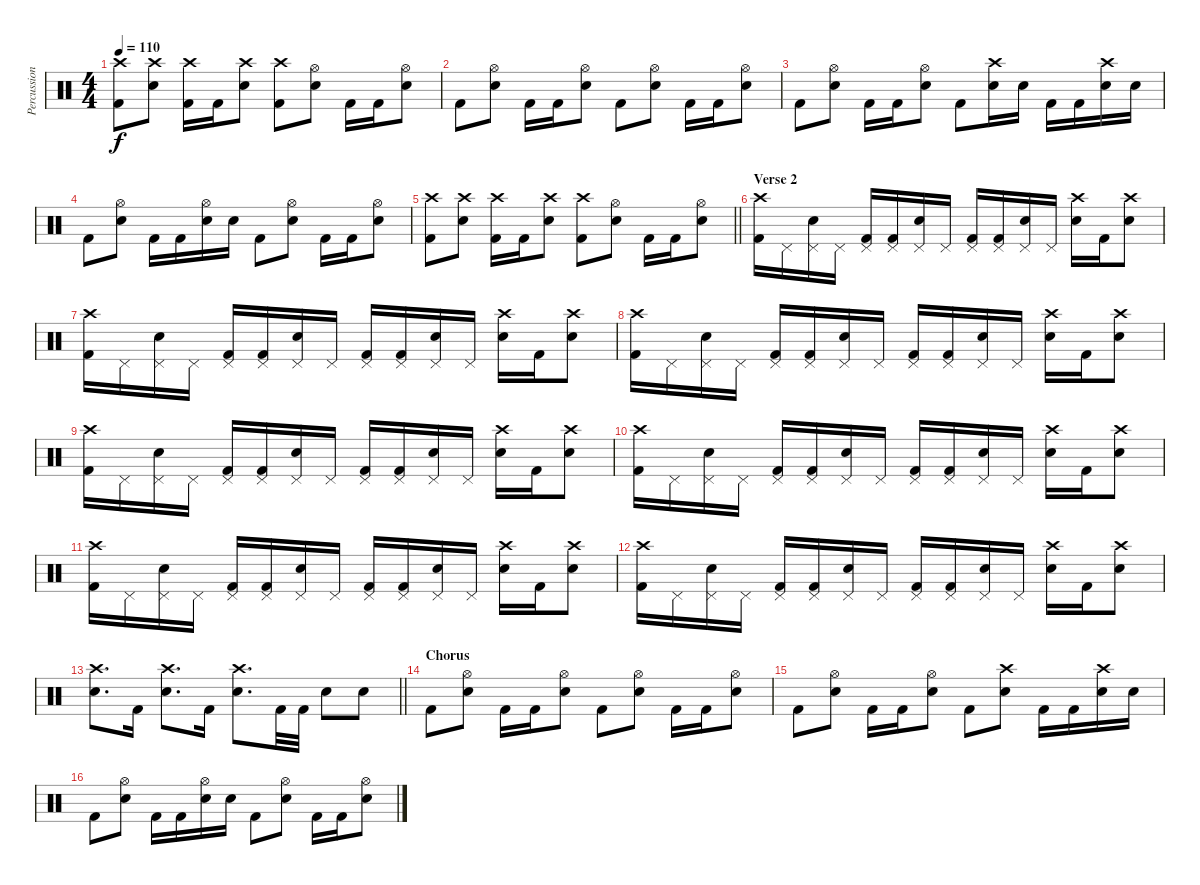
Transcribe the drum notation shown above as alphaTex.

\track ("Percussion" "Percussion") {instrument percussion}
\staff {score}
\articulation defaults
\ts (4 4)
\tempo 110
\clef neutral
\ks c
("Kick (hit) 2" "Crash high (hit)").8{dy f} ("Electric Snare (hit)" "Crash high (hit)").8 ("Kick (hit) 2" "Crash high (hit)").16 "Kick (hit) 2".16 ("Electric Snare (hit)" "Crash high (hit)").8 ("Kick (hit) 2" "Crash high (hit)").8 ("Electric Snare (hit)" "Hi-Hat (open)").8 "Kick (hit) 2".16 "Kick (hit) 2".16 ("Electric Snare (hit)" "Hi-Hat (open)").8 |
"Kick (hit) 2".8 ("Electric Snare (hit)" "Hi-Hat (open)").8 "Kick (hit) 2".16 "Kick (hit) 2".16 ("Electric Snare (hit)" "Hi-Hat (open)").8 "Kick (hit) 2".8 ("Electric Snare (hit)" "Hi-Hat (open)").8 "Kick (hit) 2".16 "Kick (hit) 2".16 ("Electric Snare (hit)" "Hi-Hat (open)").8 |
"Kick (hit) 2".8 ("Electric Snare (hit)" "Hi-Hat (open)").8 "Kick (hit) 2".16 "Kick (hit) 2".16 ("Electric Snare (hit)" "Hi-Hat (open)").8 "Kick (hit) 2".8 ("Electric Snare (hit)" "Crash high (hit)").16 "Electric Snare (hit)".16 "Kick (hit) 2".16 "Kick (hit) 2".16 ("Electric Snare (hit)" "Crash high (hit)").16 "Electric Snare (hit)".16 |
"Kick (hit) 2".8 ("Electric Snare (hit)" "Hi-Hat (open)").8 "Kick (hit) 2".16 "Kick (hit) 2".16 ("Electric Snare (hit)" "Hi-Hat (open)").16 "Electric Snare (hit)".16 "Kick (hit) 2".8 ("Electric Snare (hit)" "Hi-Hat (open)").8 "Kick (hit) 2".16 "Kick (hit) 2".16 ("Electric Snare (hit)" "Hi-Hat (open)").8 |
\barLineRight lightlight
("Kick (hit) 2" "Crash high (hit)").8 ("Electric Snare (hit)" "Crash high (hit)").8 ("Kick (hit) 2" "Crash high (hit)").16 "Kick (hit) 2".16 ("Electric Snare (hit)" "Crash high (hit)").8 ("Kick (hit) 2" "Crash high (hit)").8 ("Electric Snare (hit)" "Hi-Hat (open)").8 "Kick (hit) 2".16 "Kick (hit) 2".16 ("Electric Snare (hit)" "Hi-Hat (open)").8 |
\section ("" "Verse 2")
("Kick (hit) 2" "Crash high (hit)").16 "Pedal Hi-Hat (hit)".16 ("Electric Snare (hit)" "Pedal Hi-Hat (hit)").16 "Pedal Hi-Hat (hit)".16 ("Kick (hit) 2" "Pedal Hi-Hat (hit)").16 ("Kick (hit) 2" "Pedal Hi-Hat (hit)").16 ("Electric Snare (hit)" "Pedal Hi-Hat (hit)").16 "Pedal Hi-Hat (hit)".16 ("Kick (hit) 2" "Pedal Hi-Hat (hit)").16 ("Kick (hit) 2" "Pedal Hi-Hat (hit)").16 ("Electric Snare (hit)" "Pedal Hi-Hat (hit)").16 "Pedal Hi-Hat (hit)".16 ("Electric Snare (hit)" "Crash high (hit)").16 "Kick (hit) 2".16 ("Electric Snare (hit)" "Crash high (hit)").8 |
("Kick (hit) 2" "Crash high (hit)").16 "Pedal Hi-Hat (hit)".16 ("Electric Snare (hit)" "Pedal Hi-Hat (hit)").16 "Pedal Hi-Hat (hit)".16 ("Kick (hit) 2" "Pedal Hi-Hat (hit)").16 ("Kick (hit) 2" "Pedal Hi-Hat (hit)").16 ("Electric Snare (hit)" "Pedal Hi-Hat (hit)").16 "Pedal Hi-Hat (hit)".16 ("Kick (hit) 2" "Pedal Hi-Hat (hit)").16 ("Kick (hit) 2" "Pedal Hi-Hat (hit)").16 ("Electric Snare (hit)" "Pedal Hi-Hat (hit)").16 "Pedal Hi-Hat (hit)".16 ("Electric Snare (hit)" "Crash high (hit)").16 "Kick (hit) 2".16 ("Electric Snare (hit)" "Crash high (hit)").8 |
("Kick (hit) 2" "Crash high (hit)").16 "Pedal Hi-Hat (hit)".16 ("Electric Snare (hit)" "Pedal Hi-Hat (hit)").16 "Pedal Hi-Hat (hit)".16 ("Kick (hit) 2" "Pedal Hi-Hat (hit)").16 ("Kick (hit) 2" "Pedal Hi-Hat (hit)").16 ("Electric Snare (hit)" "Pedal Hi-Hat (hit)").16 "Pedal Hi-Hat (hit)".16 ("Kick (hit) 2" "Pedal Hi-Hat (hit)").16 ("Kick (hit) 2" "Pedal Hi-Hat (hit)").16 ("Electric Snare (hit)" "Pedal Hi-Hat (hit)").16 "Pedal Hi-Hat (hit)".16 ("Electric Snare (hit)" "Crash high (hit)").16 "Kick (hit) 2".16 ("Electric Snare (hit)" "Crash high (hit)").8 |
("Kick (hit) 2" "Crash high (hit)").16 "Pedal Hi-Hat (hit)".16 ("Electric Snare (hit)" "Pedal Hi-Hat (hit)").16 "Pedal Hi-Hat (hit)".16 ("Kick (hit) 2" "Pedal Hi-Hat (hit)").16 ("Kick (hit) 2" "Pedal Hi-Hat (hit)").16 ("Electric Snare (hit)" "Pedal Hi-Hat (hit)").16 "Pedal Hi-Hat (hit)".16 ("Kick (hit) 2" "Pedal Hi-Hat (hit)").16 ("Kick (hit) 2" "Pedal Hi-Hat (hit)").16 ("Electric Snare (hit)" "Pedal Hi-Hat (hit)").16 "Pedal Hi-Hat (hit)".16 ("Electric Snare (hit)" "Crash high (hit)").16 "Kick (hit) 2".16 ("Electric Snare (hit)" "Crash high (hit)").8 |
("Kick (hit) 2" "Crash high (hit)").16 "Pedal Hi-Hat (hit)".16 ("Electric Snare (hit)" "Pedal Hi-Hat (hit)").16 "Pedal Hi-Hat (hit)".16 ("Kick (hit) 2" "Pedal Hi-Hat (hit)").16 ("Kick (hit) 2" "Pedal Hi-Hat (hit)").16 ("Electric Snare (hit)" "Pedal Hi-Hat (hit)").16 "Pedal Hi-Hat (hit)".16 ("Kick (hit) 2" "Pedal Hi-Hat (hit)").16 ("Kick (hit) 2" "Pedal Hi-Hat (hit)").16 ("Electric Snare (hit)" "Pedal Hi-Hat (hit)").16 "Pedal Hi-Hat (hit)".16 ("Electric Snare (hit)" "Crash high (hit)").16 "Kick (hit) 2".16 ("Electric Snare (hit)" "Crash high (hit)").8 |
("Kick (hit) 2" "Crash high (hit)").16 "Pedal Hi-Hat (hit)".16 ("Electric Snare (hit)" "Pedal Hi-Hat (hit)").16 "Pedal Hi-Hat (hit)".16 ("Kick (hit) 2" "Pedal Hi-Hat (hit)").16 ("Kick (hit) 2" "Pedal Hi-Hat (hit)").16 ("Electric Snare (hit)" "Pedal Hi-Hat (hit)").16 "Pedal Hi-Hat (hit)".16 ("Kick (hit) 2" "Pedal Hi-Hat (hit)").16 ("Kick (hit) 2" "Pedal Hi-Hat (hit)").16 ("Electric Snare (hit)" "Pedal Hi-Hat (hit)").16 "Pedal Hi-Hat (hit)".16 ("Electric Snare (hit)" "Crash high (hit)").16 "Kick (hit) 2".16 ("Electric Snare (hit)" "Crash high (hit)").8 |
("Kick (hit) 2" "Crash high (hit)").16 "Pedal Hi-Hat (hit)".16 ("Electric Snare (hit)" "Pedal Hi-Hat (hit)").16 "Pedal Hi-Hat (hit)".16 ("Kick (hit) 2" "Pedal Hi-Hat (hit)").16 ("Kick (hit) 2" "Pedal Hi-Hat (hit)").16 ("Electric Snare (hit)" "Pedal Hi-Hat (hit)").16 "Pedal Hi-Hat (hit)".16 ("Kick (hit) 2" "Pedal Hi-Hat (hit)").16 ("Kick (hit) 2" "Pedal Hi-Hat (hit)").16 ("Electric Snare (hit)" "Pedal Hi-Hat (hit)").16 "Pedal Hi-Hat (hit)".16 ("Electric Snare (hit)" "Crash high (hit)").16 "Kick (hit) 2".16 ("Electric Snare (hit)" "Crash high (hit)").8 |
\barLineRight lightlight
("Electric Snare (hit)" "Crash high (hit)").8{d} "Kick (hit) 2".16 ("Electric Snare (hit)" "Crash high (hit)").8{d} "Kick (hit) 2".16 ("Electric Snare (hit)" "Crash high (hit)").8{d} "Kick (hit) 2".32 "Kick (hit) 2".32 "Electric Snare (hit)".8 "Electric Snare (hit)".8 |
\section ("" "Chorus")
"Kick (hit) 2".8 ("Electric Snare (hit)" "Hi-Hat (open)").8 "Kick (hit) 2".16 "Kick (hit) 2".16 ("Electric Snare (hit)" "Hi-Hat (open)").8 "Kick (hit) 2".8 ("Electric Snare (hit)" "Hi-Hat (open)").8 "Kick (hit) 2".16 "Kick (hit) 2".16 ("Electric Snare (hit)" "Hi-Hat (open)").8 |
"Kick (hit) 2".8 ("Electric Snare (hit)" "Hi-Hat (open)").8 "Kick (hit) 2".16 "Kick (hit) 2".16 ("Electric Snare (hit)" "Hi-Hat (open)").8 "Kick (hit) 2".8 ("Electric Snare (hit)" "Crash high (hit)").8 "Kick (hit) 2".16 "Kick (hit) 2".16 ("Electric Snare (hit)" "Crash high (hit)").16 "Electric Snare (hit)".16 |
"Kick (hit) 2".8 ("Electric Snare (hit)" "Hi-Hat (open)").8 "Kick (hit) 2".16 "Kick (hit) 2".16 ("Electric Snare (hit)" "Hi-Hat (open)").16 "Electric Snare (hit)".16 "Kick (hit) 2".8 ("Electric Snare (hit)" "Hi-Hat (open)").8 "Kick (hit) 2".16 "Kick (hit) 2".16 ("Electric Snare (hit)" "Hi-Hat (open)").8
